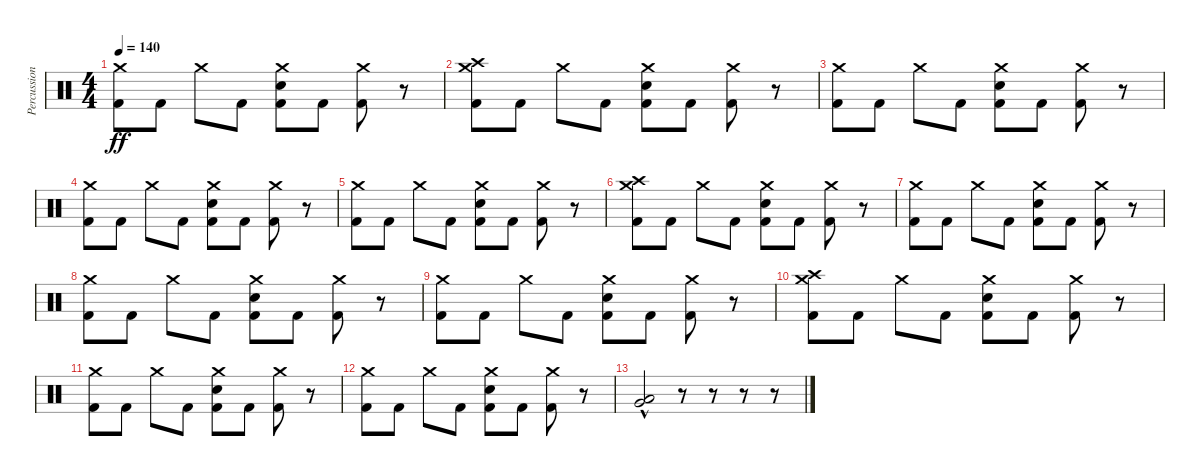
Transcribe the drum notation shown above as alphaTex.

\track ("Percussion" "Percussion") {instrument percussion}
\staff {score}
\articulation defaults
\ts (4 4)
\tempo 140
\clef neutral
\ks c
("Crash medium (hit)" "Kick (hit) 2").8{dy ff} "Kick (hit) 2".8 "Crash medium (hit)".8 "Kick (hit) 2".8 ("Crash medium (hit)" "Electric Snare (hit)" "Kick (hit) 2").8 "Kick (hit) 2".8 ("Crash medium (hit)" "Kick (hit) 2").8 r.8 |
("Crash medium (hit)" "Crash high (hit)" "Kick (hit) 2").8 "Kick (hit) 2".8 "Crash medium (hit)".8 "Kick (hit) 2".8 ("Crash medium (hit)" "Electric Snare (hit)" "Kick (hit) 2").8 "Kick (hit) 2".8 ("Crash medium (hit)" "Kick (hit) 2").8 r.8 |
("Crash medium (hit)" "Kick (hit) 2").8 "Kick (hit) 2".8 "Crash medium (hit)".8 "Kick (hit) 2".8 ("Crash medium (hit)" "Electric Snare (hit)" "Kick (hit) 2").8 "Kick (hit) 2".8 ("Crash medium (hit)" "Kick (hit) 2").8 r.8 |
("Crash medium (hit)" "Kick (hit) 2").8 "Kick (hit) 2".8 "Crash medium (hit)".8 "Kick (hit) 2".8 ("Crash medium (hit)" "Electric Snare (hit)" "Kick (hit) 2").8 "Kick (hit) 2".8 ("Crash medium (hit)" "Kick (hit) 2").8 r.8 |
("Crash medium (hit)" "Kick (hit) 2").8 "Kick (hit) 2".8 "Crash medium (hit)".8 "Kick (hit) 2".8 ("Crash medium (hit)" "Electric Snare (hit)" "Kick (hit) 2").8 "Kick (hit) 2".8 ("Crash medium (hit)" "Kick (hit) 2").8 r.8 |
("Crash medium (hit)" "Crash high (hit)" "Kick (hit) 2").8 "Kick (hit) 2".8 "Crash medium (hit)".8 "Kick (hit) 2".8 ("Crash medium (hit)" "Electric Snare (hit)" "Kick (hit) 2").8 "Kick (hit) 2".8 ("Crash medium (hit)" "Kick (hit) 2").8 r.8 |
("Crash medium (hit)" "Kick (hit) 2").8 "Kick (hit) 2".8 "Crash medium (hit)".8 "Kick (hit) 2".8 ("Crash medium (hit)" "Electric Snare (hit)" "Kick (hit) 2").8 "Kick (hit) 2".8 ("Crash medium (hit)" "Kick (hit) 2").8 r.8 |
("Crash medium (hit)" "Kick (hit) 2").8 "Kick (hit) 2".8 "Crash medium (hit)".8 "Kick (hit) 2".8 ("Crash medium (hit)" "Electric Snare (hit)" "Kick (hit) 2").8 "Kick (hit) 2".8 ("Crash medium (hit)" "Kick (hit) 2").8 r.8 |
("Crash medium (hit)" "Kick (hit) 2").8 "Kick (hit) 2".8 "Crash medium (hit)".8 "Kick (hit) 2".8 ("Crash medium (hit)" "Electric Snare (hit)" "Kick (hit) 2").8 "Kick (hit) 2".8 ("Crash medium (hit)" "Kick (hit) 2").8 r.8 |
("Crash medium (hit)" "Crash high (hit)" "Kick (hit) 2").8 "Kick (hit) 2".8 "Crash medium (hit)".8 "Kick (hit) 2".8 ("Crash medium (hit)" "Electric Snare (hit)" "Kick (hit) 2").8 "Kick (hit) 2".8 ("Crash medium (hit)" "Kick (hit) 2").8 r.8 |
("Crash medium (hit)" "Kick (hit) 2").8 "Kick (hit) 2".8 "Crash medium (hit)".8 "Kick (hit) 2".8 ("Crash medium (hit)" "Electric Snare (hit)" "Kick (hit) 2").8 "Kick (hit) 2".8 ("Crash medium (hit)" "Kick (hit) 2").8 r.8 |
("Crash medium (hit)" "Kick (hit) 2").8 "Kick (hit) 2".8 "Crash medium (hit)".8 "Kick (hit) 2".8 ("Crash medium (hit)" "Electric Snare (hit)" "Kick (hit) 2").8 "Kick (hit) 2".8 ("Crash medium (hit)" "Kick (hit) 2").8 r.8 |
("Low Floor Tom (hit)"{hac} "Very Low Tom (hit)").2 r.8 r.8 r.8 r.8
